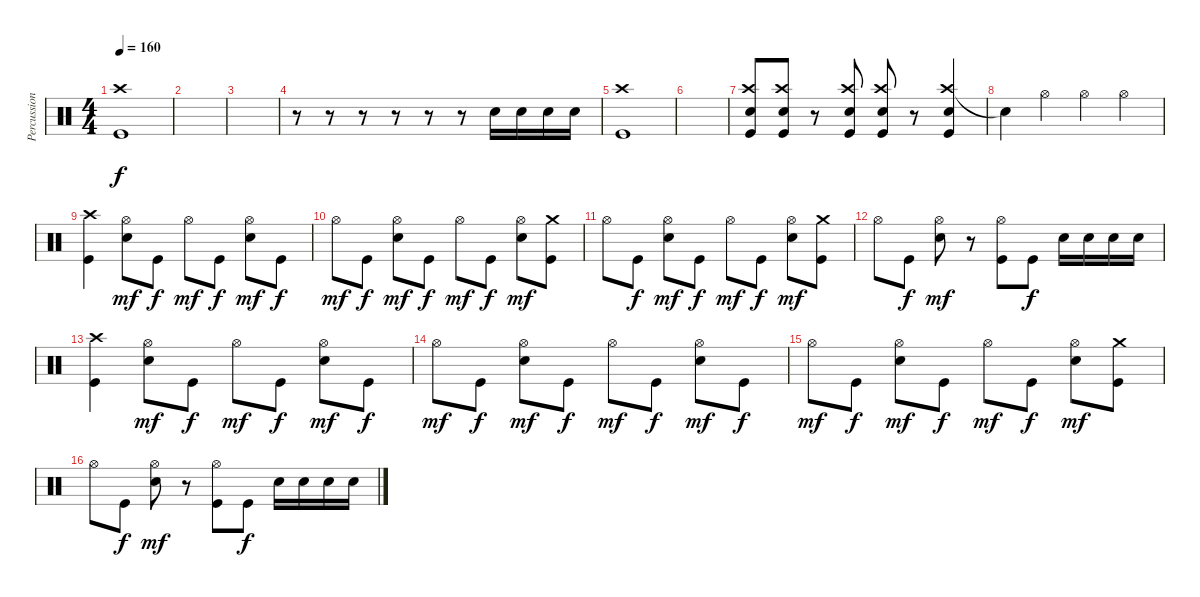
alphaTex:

\track ("Percussion" "Percussion") {instrument percussion}
\staff {score}
\articulation defaults
\ts (4 4)
\tempo 160
\clef neutral
\ks c
("Kick (hit)" "Crash high (hit)").1{dy f} |
|
|
r.8 r.8 r.8 r.8 r.8 r.8 "Electric Snare (hit)".16 "Electric Snare (hit)".16 "Electric Snare (hit)".16 "Electric Snare (hit)".16 |
("Kick (hit)" "Crash high (hit)").1 |
|
("Crash high (hit)" "Electric Snare (hit)" "Kick (hit)").8 ("Crash high (hit)" "Electric Snare (hit)" "Kick (hit)").8 r.8 ("Crash high (hit)" "Electric Snare (hit)" "Kick (hit)").8 ("Crash high (hit)" "Electric Snare (hit)" "Kick (hit)").8 r.8 ("Crash high (hit)" "Electric Snare (hit)" "Kick (hit)").4 |
"Snare (hit)"{t}.4 "Hi-Hat (open)".4 "Hi-Hat (open)".4 "Hi-Hat (open)".4 |
("Kick (hit)" "Crash high (hit)").4 ("Electric Snare (hit)" "Hi-Hat (open)").8{dy mf} "Kick (hit)".8{dy f} "Hi-Hat (open)".8{dy mf} "Kick (hit)".8{dy f} ("Electric Snare (hit)" "Hi-Hat (open)").8{dy mf} "Kick (hit)".8{dy f} |
"Hi-Hat (open)".8{dy mf} "Kick (hit)".8{dy f} ("Electric Snare (hit)" "Hi-Hat (open)").8{dy mf} "Kick (hit)".8{dy f} "Hi-Hat (open)".8{dy mf} "Kick (hit)".8{dy f} ("Electric Snare (hit)" "Hi-Hat (open)").8{dy mf} ("Kick (hit)" "Crash medium (hit)").8 |
"Hi-Hat (open)".8 "Kick (hit)".8{dy f} ("Electric Snare (hit)" "Hi-Hat (open)").8{dy mf} "Kick (hit)".8{dy f} "Hi-Hat (open)".8{dy mf} "Kick (hit)".8{dy f} ("Electric Snare (hit)" "Hi-Hat (open)").8{dy mf} ("Kick (hit)" "Crash medium (hit)").8 |
"Hi-Hat (open)".8 "Kick (hit)".8{dy f} ("Electric Snare (hit)" "Hi-Hat (open)").8{dy mf} r.8 ("Kick (hit)" "Hi-Hat (open)").8 "Kick (hit)".8{dy f} "Electric Snare (hit)".16 "Electric Snare (hit)".16 "Electric Snare (hit)".16 "Electric Snare (hit)".16 |
("Kick (hit)" "Crash high (hit)").4 ("Electric Snare (hit)" "Hi-Hat (open)").8{dy mf} "Kick (hit)".8{dy f} "Hi-Hat (open)".8{dy mf} "Kick (hit)".8{dy f} ("Electric Snare (hit)" "Hi-Hat (open)").8{dy mf} "Kick (hit)".8{dy f} |
"Hi-Hat (open)".8{dy mf} "Kick (hit)".8{dy f} ("Electric Snare (hit)" "Hi-Hat (open)").8{dy mf} "Kick (hit)".8{dy f} "Hi-Hat (open)".8{dy mf} "Kick (hit)".8{dy f} ("Electric Snare (hit)" "Hi-Hat (open)").8{dy mf} "Kick (hit)".8{dy f} |
"Hi-Hat (open)".8{dy mf} "Kick (hit)".8{dy f} ("Electric Snare (hit)" "Hi-Hat (open)").8{dy mf} "Kick (hit)".8{dy f} "Hi-Hat (open)".8{dy mf} "Kick (hit)".8{dy f} ("Electric Snare (hit)" "Hi-Hat (open)").8{dy mf} ("Kick (hit)" "Crash medium (hit)").8 |
"Hi-Hat (open)".8 "Kick (hit)".8{dy f} ("Electric Snare (hit)" "Hi-Hat (open)").8{dy mf} r.8 ("Kick (hit)" "Hi-Hat (open)").8 "Kick (hit)".8{dy f} "Electric Snare (hit)".16 "Electric Snare (hit)".16 "Electric Snare (hit)".16 "Electric Snare (hit)".16
